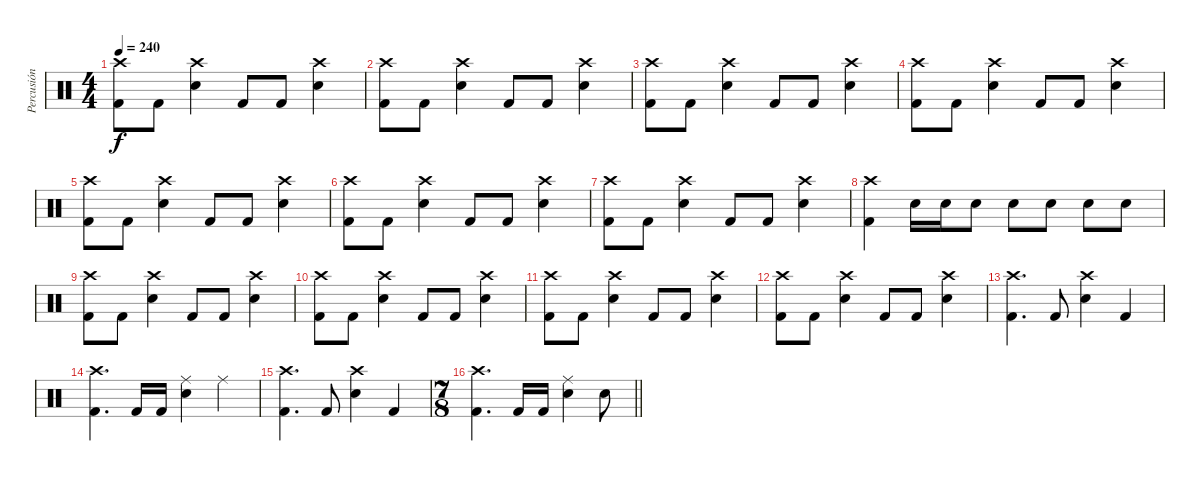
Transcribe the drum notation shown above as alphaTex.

\track ("Percusión" "Percusión") {instrument percussion}
\staff {score}
\articulation defaults
\ts (4 4)
\tempo 240
\clef neutral
\ks c
("Crash high (hit)" "Kick (hit) 2").8{dy f} "Kick (hit) 2".8 ("Crash high (hit)" "Electric Snare (hit)").4 "Kick (hit) 2".8 "Kick (hit) 2".8 ("Crash high (hit)" "Electric Snare (hit)").4 |
("Crash high (hit)" "Kick (hit) 2").8 "Kick (hit) 2".8 ("Crash high (hit)" "Electric Snare (hit)").4 "Kick (hit) 2".8 "Kick (hit) 2".8 ("Crash high (hit)" "Electric Snare (hit)").4 |
("Crash high (hit)" "Kick (hit) 2").8 "Kick (hit) 2".8 ("Crash high (hit)" "Electric Snare (hit)").4 "Kick (hit) 2".8 "Kick (hit) 2".8 ("Crash high (hit)" "Electric Snare (hit)").4 |
("Crash high (hit)" "Kick (hit) 2").8 "Kick (hit) 2".8 ("Crash high (hit)" "Electric Snare (hit)").4 "Kick (hit) 2".8 "Kick (hit) 2".8 ("Crash high (hit)" "Electric Snare (hit)").4 |
("Crash high (hit)" "Kick (hit) 2").8 "Kick (hit) 2".8 ("Crash high (hit)" "Electric Snare (hit)").4 "Kick (hit) 2".8 "Kick (hit) 2".8 ("Crash high (hit)" "Electric Snare (hit)").4 |
("Crash high (hit)" "Kick (hit) 2").8 "Kick (hit) 2".8 ("Crash high (hit)" "Electric Snare (hit)").4 "Kick (hit) 2".8 "Kick (hit) 2".8 ("Crash high (hit)" "Electric Snare (hit)").4 |
("Crash high (hit)" "Kick (hit) 2").8 "Kick (hit) 2".8 ("Crash high (hit)" "Electric Snare (hit)").4 "Kick (hit) 2".8 "Kick (hit) 2".8 ("Crash high (hit)" "Electric Snare (hit)").4 |
("Crash high (hit)" "Kick (hit) 2").4 "Electric Snare (hit)".16 "Electric Snare (hit)".16 "Electric Snare (hit)".8 "Electric Snare (hit)".8 "Electric Snare (hit)".8 "Electric Snare (hit)".8 "Electric Snare (hit)".8 |
("Crash high (hit)" "Kick (hit) 2").8 "Kick (hit) 2".8 ("Crash high (hit)" "Electric Snare (hit)").4 "Kick (hit) 2".8 "Kick (hit) 2".8 ("Crash high (hit)" "Electric Snare (hit)").4 |
("Crash high (hit)" "Kick (hit) 2").8 "Kick (hit) 2".8 ("Crash high (hit)" "Electric Snare (hit)").4 "Kick (hit) 2".8 "Kick (hit) 2".8 ("Crash high (hit)" "Electric Snare (hit)").4 |
("Crash high (hit)" "Kick (hit) 2").8 "Kick (hit) 2".8 ("Crash high (hit)" "Electric Snare (hit)").4 "Kick (hit) 2".8 "Kick (hit) 2".8 ("Crash high (hit)" "Electric Snare (hit)").4 |
("Crash high (hit)" "Kick (hit) 2").8 "Kick (hit) 2".8 ("Crash high (hit)" "Electric Snare (hit)").4 "Kick (hit) 2".8 "Kick (hit) 2".8 ("Crash high (hit)" "Electric Snare (hit)").4 |
("Crash high (hit)" "Kick (hit) 2").4{d} "Kick (hit) 2".8 ("Crash high (hit)" "Electric Snare (hit)").4 "Kick (hit) 2".4 |
("Crash high (hit)" "Kick (hit) 2").4{d} "Kick (hit) 2".16 "Kick (hit) 2".16 ("Ride (middle)" "Electric Snare (hit)").4 "Ride (middle)".4 |
("Crash high (hit)" "Kick (hit) 2").4{d} "Kick (hit) 2".8 ("Crash high (hit)" "Electric Snare (hit)").4 "Kick (hit) 2".4 |
\ts (7 8)
\barLineRight lightlight
("Crash high (hit)" "Kick (hit) 2").4{d} "Kick (hit) 2".16 "Kick (hit) 2".16 ("Ride (middle)" "Electric Snare (hit)").4 "Electric Snare (hit)".8
